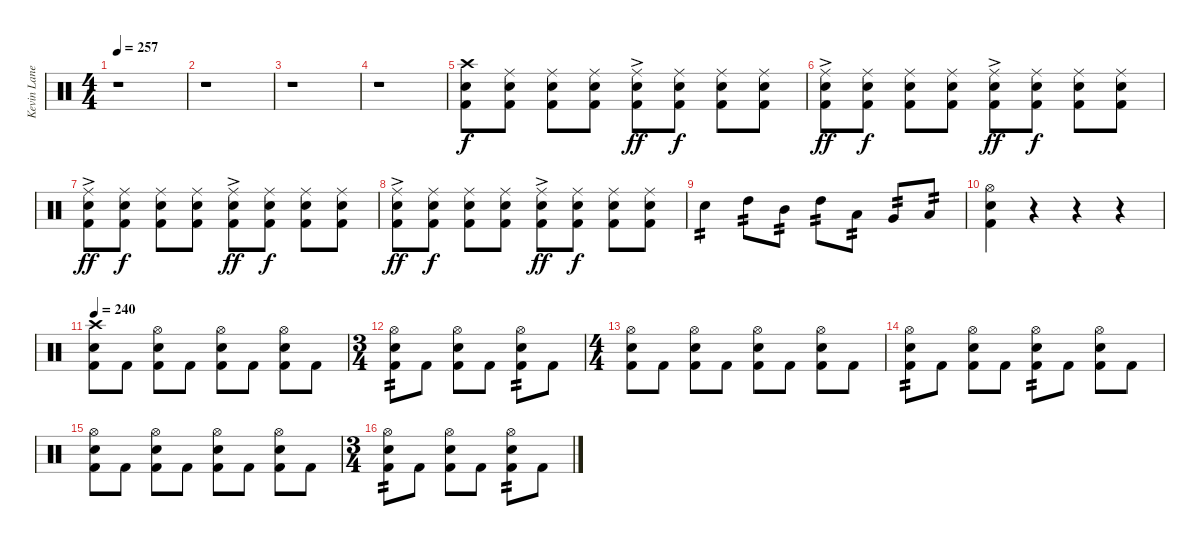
\track ("Kevin Lane" "Kevin Lane") {instrument percussion}
\staff {score}
\articulation defaults
\ts (4 4)
\tempo 257
\clef neutral
\ks c
r.1{dy f} |
r.1 |
r.1 |
r.1 |
("Crash high (hit)" "Electric Snare (hit)" "Kick (hit) 2").8 ("Ride (middle)" "Electric Snare (hit)" "Kick (hit) 2").8 ("Ride (middle)" "Electric Snare (hit)" "Kick (hit) 2").8 ("Ride (middle)" "Electric Snare (hit)" "Kick (hit) 2").8 ("Ride (middle)"{ac} "Electric Snare (hit)" "Kick (hit) 2").8{dy ff} ("Ride (middle)" "Electric Snare (hit)" "Kick (hit) 2").8{dy f} ("Ride (middle)" "Electric Snare (hit)" "Kick (hit) 2").8 ("Ride (middle)" "Electric Snare (hit)" "Kick (hit) 2").8 |
("Ride (middle)"{ac} "Electric Snare (hit)" "Kick (hit) 2").8{dy ff} ("Ride (middle)" "Electric Snare (hit)" "Kick (hit) 2").8{dy f} ("Ride (middle)" "Electric Snare (hit)" "Kick (hit) 2").8 ("Ride (middle)" "Electric Snare (hit)" "Kick (hit) 2").8 ("Ride (middle)"{ac} "Electric Snare (hit)" "Kick (hit) 2").8{dy ff} ("Ride (middle)" "Electric Snare (hit)" "Kick (hit) 2").8{dy f} ("Ride (middle)" "Electric Snare (hit)" "Kick (hit) 2").8 ("Ride (middle)" "Electric Snare (hit)" "Kick (hit) 2").8 |
("Ride (middle)"{ac} "Electric Snare (hit)" "Kick (hit) 2").8{dy ff} ("Ride (middle)" "Electric Snare (hit)" "Kick (hit) 2").8{dy f} ("Ride (middle)" "Electric Snare (hit)" "Kick (hit) 2").8 ("Ride (middle)" "Electric Snare (hit)" "Kick (hit) 2").8 ("Ride (middle)"{ac} "Electric Snare (hit)" "Kick (hit) 2").8{dy ff} ("Ride (middle)" "Electric Snare (hit)" "Kick (hit) 2").8{dy f} ("Ride (middle)" "Electric Snare (hit)" "Kick (hit) 2").8 ("Ride (middle)" "Electric Snare (hit)" "Kick (hit) 2").8 |
("Ride (middle)"{ac} "Electric Snare (hit)" "Kick (hit) 2").8{dy ff} ("Ride (middle)" "Electric Snare (hit)" "Kick (hit) 2").8{dy f} ("Ride (middle)" "Electric Snare (hit)" "Kick (hit) 2").8 ("Ride (middle)" "Electric Snare (hit)" "Kick (hit) 2").8 ("Ride (middle)"{ac} "Electric Snare (hit)" "Kick (hit) 2").8{dy ff} ("Ride (middle)" "Electric Snare (hit)" "Kick (hit) 2").8{dy f} ("Ride (middle)" "Electric Snare (hit)" "Kick (hit) 2").8 ("Ride (middle)" "Electric Snare (hit)" "Kick (hit) 2").8 |
"Electric Snare (hit)".4{tp 2} "High Tom (hit)".8{tp 2} "Mid Tom (hit)".8{tp 2} "High Tom (hit)".8{tp 2} "Low Tom (hit)".8{tp 2} "Very Low Tom (hit)".8{tp 2} "Low Floor Tom (hit)".8{tp 2} |
("Hi-Hat (open)" "Electric Snare (hit)" "Kick (hit) 2").4 r.4{volume 0} r.4 r.4 |
\tempo 240
("Crash high (hit)" "Electric Snare (hit)" "Kick (hit) 2").8{volume 13} "Kick (hit) 2".8 ("Hi-Hat (open)" "Electric Snare (hit)" "Kick (hit) 2").8 "Kick (hit) 2".8 ("Hi-Hat (open)" "Electric Snare (hit)" "Kick (hit) 2").8 "Kick (hit) 2".8 ("Hi-Hat (open)" "Electric Snare (hit)" "Kick (hit) 2").8 "Kick (hit) 2".8 |
\ts (3 4)
("Hi-Hat (open)" "Electric Snare (hit)" "Kick (hit) 2").8{tp 2} "Kick (hit) 2".8 ("Hi-Hat (open)" "Electric Snare (hit)" "Kick (hit) 2").8 "Kick (hit) 2".8 ("Hi-Hat (open)" "Electric Snare (hit)" "Kick (hit) 2").8{tp 2} "Kick (hit) 2".8 |
\ts (4 4)
("Hi-Hat (open)" "Electric Snare (hit)" "Kick (hit) 2").8 "Kick (hit) 2".8 ("Hi-Hat (open)" "Electric Snare (hit)" "Kick (hit) 2").8 "Kick (hit) 2".8 ("Hi-Hat (open)" "Electric Snare (hit)" "Kick (hit) 2").8 "Kick (hit) 2".8 ("Hi-Hat (open)" "Electric Snare (hit)" "Kick (hit) 2").8 "Kick (hit) 2".8 |
("Hi-Hat (open)" "Electric Snare (hit)" "Kick (hit) 2").8{tp 2} "Kick (hit) 2".8 ("Hi-Hat (open)" "Electric Snare (hit)" "Kick (hit) 2").8 "Kick (hit) 2".8 ("Hi-Hat (open)" "Electric Snare (hit)" "Kick (hit) 2").8{tp 2} "Kick (hit) 2".8 ("Hi-Hat (open)" "Electric Snare (hit)" "Kick (hit) 2").8 "Kick (hit) 2".8 |
("Hi-Hat (open)" "Electric Snare (hit)" "Kick (hit) 2").8 "Kick (hit) 2".8 ("Hi-Hat (open)" "Electric Snare (hit)" "Kick (hit) 2").8 "Kick (hit) 2".8 ("Hi-Hat (open)" "Electric Snare (hit)" "Kick (hit) 2").8 "Kick (hit) 2".8 ("Hi-Hat (open)" "Electric Snare (hit)" "Kick (hit) 2").8 "Kick (hit) 2".8 |
\ts (3 4)
("Hi-Hat (open)" "Electric Snare (hit)" "Kick (hit) 2").8{tp 2} "Kick (hit) 2".8 ("Hi-Hat (open)" "Electric Snare (hit)" "Kick (hit) 2").8 "Kick (hit) 2".8 ("Hi-Hat (open)" "Electric Snare (hit)" "Kick (hit) 2").8{tp 2} "Kick (hit) 2".8
